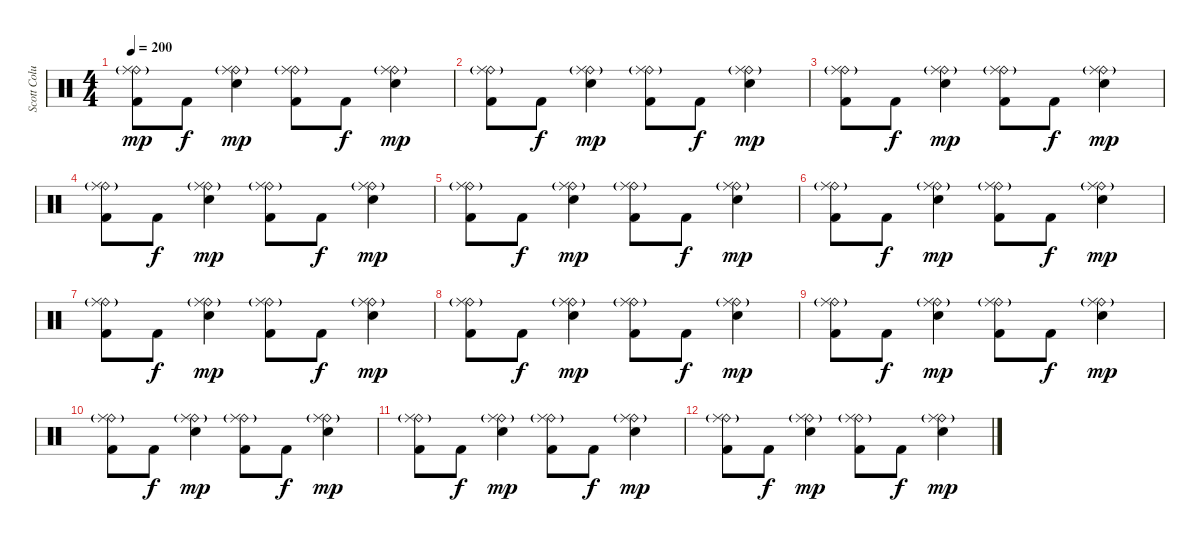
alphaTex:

\track ("Scott Columbus" "Scott Colu") {instrument percussion}
\staff {score}
\articulation defaults
\ts (4 4)
\tempo 200
\clef neutral
\ks c
("Ride (bell)"{g} "Ride (middle)" "Kick (hit) 2").8{dy mp} "Kick (hit) 2".8{dy f} ("Ride (bell)"{g} "Ride (middle)" "Snare (hit) 2").4{dy mp} ("Ride (bell)"{g} "Ride (middle)" "Kick (hit) 2").8 "Kick (hit) 2".8{dy f} ("Ride (bell)"{g} "Ride (middle)" "Snare (hit) 2").4{dy mp} |
("Ride (bell)"{g} "Ride (middle)" "Kick (hit) 2").8 "Kick (hit) 2".8{dy f} ("Ride (bell)"{g} "Ride (middle)" "Snare (hit) 2").4{dy mp} ("Ride (bell)"{g} "Ride (middle)" "Kick (hit) 2").8 "Kick (hit) 2".8{dy f} ("Ride (bell)"{g} "Ride (middle)" "Snare (hit) 2").4{dy mp} |
("Ride (bell)"{g} "Ride (middle)" "Kick (hit) 2").8 "Kick (hit) 2".8{dy f} ("Ride (bell)"{g} "Ride (middle)" "Snare (hit) 2").4{dy mp} ("Ride (bell)"{g} "Ride (middle)" "Kick (hit) 2").8 "Kick (hit) 2".8{dy f} ("Ride (bell)"{g} "Ride (middle)" "Snare (hit) 2").4{dy mp} |
("Ride (bell)"{g} "Ride (middle)" "Kick (hit) 2").8 "Kick (hit) 2".8{dy f} ("Ride (bell)"{g} "Ride (middle)" "Snare (hit) 2").4{dy mp} ("Ride (bell)"{g} "Ride (middle)" "Kick (hit) 2").8 "Kick (hit) 2".8{dy f} ("Ride (bell)"{g} "Ride (middle)" "Snare (hit) 2").4{dy mp} |
("Ride (bell)"{g} "Ride (middle)" "Kick (hit) 2").8 "Kick (hit) 2".8{dy f} ("Ride (bell)"{g} "Ride (middle)" "Snare (hit) 2").4{dy mp} ("Ride (bell)"{g} "Ride (middle)" "Kick (hit) 2").8 "Kick (hit) 2".8{dy f} ("Ride (bell)"{g} "Ride (middle)" "Snare (hit) 2").4{dy mp} |
("Ride (bell)"{g} "Ride (middle)" "Kick (hit) 2").8 "Kick (hit) 2".8{dy f} ("Ride (bell)"{g} "Ride (middle)" "Snare (hit) 2").4{dy mp} ("Ride (bell)"{g} "Ride (middle)" "Kick (hit) 2").8 "Kick (hit) 2".8{dy f} ("Ride (bell)"{g} "Ride (middle)" "Snare (hit) 2").4{dy mp} |
("Ride (bell)"{g} "Ride (middle)" "Kick (hit) 2").8 "Kick (hit) 2".8{dy f} ("Ride (bell)"{g} "Ride (middle)" "Snare (hit) 2").4{dy mp} ("Ride (bell)"{g} "Ride (middle)" "Kick (hit) 2").8 "Kick (hit) 2".8{dy f} ("Ride (bell)"{g} "Ride (middle)" "Snare (hit) 2").4{dy mp} |
("Ride (bell)"{g} "Ride (middle)" "Kick (hit) 2").8 "Kick (hit) 2".8{dy f} ("Ride (bell)"{g} "Ride (middle)" "Snare (hit) 2").4{dy mp} ("Ride (bell)"{g} "Ride (middle)" "Kick (hit) 2").8 "Kick (hit) 2".8{dy f} ("Ride (bell)"{g} "Ride (middle)" "Snare (hit) 2").4{dy mp} |
("Ride (bell)"{g} "Ride (middle)" "Kick (hit) 2").8 "Kick (hit) 2".8{dy f} ("Ride (bell)"{g} "Ride (middle)" "Snare (hit) 2").4{dy mp} ("Ride (bell)"{g} "Ride (middle)" "Kick (hit) 2").8 "Kick (hit) 2".8{dy f} ("Ride (bell)"{g} "Ride (middle)" "Snare (hit) 2").4{dy mp} |
("Ride (bell)"{g} "Ride (middle)" "Kick (hit) 2").8 "Kick (hit) 2".8{dy f} ("Ride (bell)"{g} "Ride (middle)" "Snare (hit) 2").4{dy mp} ("Ride (bell)"{g} "Ride (middle)" "Kick (hit) 2").8 "Kick (hit) 2".8{dy f} ("Ride (bell)"{g} "Ride (middle)" "Snare (hit) 2").4{dy mp} |
("Ride (bell)"{g} "Ride (middle)" "Kick (hit) 2").8 "Kick (hit) 2".8{dy f} ("Ride (bell)"{g} "Ride (middle)" "Snare (hit) 2").4{dy mp} ("Ride (bell)"{g} "Ride (middle)" "Kick (hit) 2").8 "Kick (hit) 2".8{dy f} ("Ride (bell)"{g} "Ride (middle)" "Snare (hit) 2").4{dy mp} |
("Ride (bell)"{g} "Ride (middle)" "Kick (hit) 2").8 "Kick (hit) 2".8{dy f} ("Ride (bell)"{g} "Ride (middle)" "Snare (hit) 2").4{dy mp} ("Ride (bell)"{g} "Ride (middle)" "Kick (hit) 2").8 "Kick (hit) 2".8{dy f} ("Ride (bell)"{g} "Ride (middle)" "Snare (hit) 2").4{dy mp}
